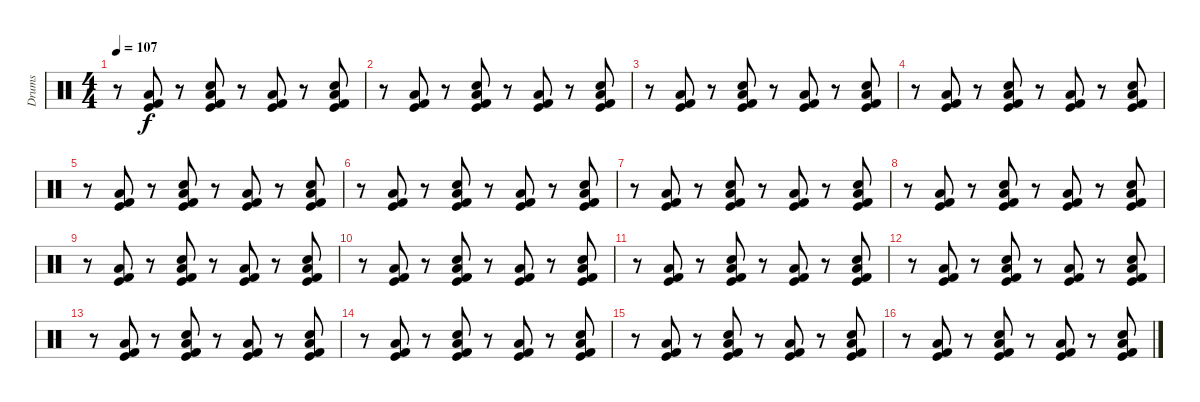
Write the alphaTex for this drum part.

\track ("Drums" "Drums") {instrument percussion}
\staff {score}
\articulation defaults
\ts (4 4)
\tempo 107
\clef neutral
\ks c
r.8{dy f} ("Kick (hit)" "Low Floor Tom (hit)" "Kick (hit) 2").8 r.8 ("Electric Snare (hit)" "Kick (hit)" "Low Floor Tom (hit)" "Kick (hit) 2").8 r.8 ("Kick (hit)" "Low Floor Tom (hit)" "Kick (hit) 2").8 r.8 ("Electric Snare (hit)" "Kick (hit)" "Low Floor Tom (hit)" "Kick (hit) 2").8 |
r.8 ("Kick (hit)" "Low Floor Tom (hit)" "Kick (hit) 2").8 r.8 ("Electric Snare (hit)" "Kick (hit)" "Low Floor Tom (hit)" "Kick (hit) 2").8 r.8 ("Kick (hit)" "Low Floor Tom (hit)" "Kick (hit) 2").8 r.8 ("Electric Snare (hit)" "Kick (hit)" "Low Floor Tom (hit)" "Kick (hit) 2").8 |
r.8 ("Kick (hit)" "Low Floor Tom (hit)" "Kick (hit) 2").8 r.8 ("Electric Snare (hit)" "Kick (hit)" "Low Floor Tom (hit)" "Kick (hit) 2").8 r.8 ("Kick (hit)" "Low Floor Tom (hit)" "Kick (hit) 2").8 r.8 ("Electric Snare (hit)" "Kick (hit)" "Low Floor Tom (hit)" "Kick (hit) 2").8 |
r.8 ("Kick (hit)" "Low Floor Tom (hit)" "Kick (hit) 2").8 r.8 ("Electric Snare (hit)" "Kick (hit)" "Low Floor Tom (hit)" "Kick (hit) 2").8 r.8 ("Kick (hit)" "Low Floor Tom (hit)" "Kick (hit) 2").8 r.8 ("Electric Snare (hit)" "Kick (hit)" "Low Floor Tom (hit)" "Kick (hit) 2").8 |
r.8 ("Kick (hit)" "Low Floor Tom (hit)" "Kick (hit) 2").8 r.8 ("Electric Snare (hit)" "Kick (hit)" "Low Floor Tom (hit)" "Kick (hit) 2").8 r.8 ("Kick (hit)" "Low Floor Tom (hit)" "Kick (hit) 2").8 r.8 ("Electric Snare (hit)" "Kick (hit)" "Low Floor Tom (hit)" "Kick (hit) 2").8 |
r.8 ("Kick (hit)" "Low Floor Tom (hit)" "Kick (hit) 2").8 r.8 ("Electric Snare (hit)" "Kick (hit)" "Low Floor Tom (hit)" "Kick (hit) 2").8 r.8 ("Kick (hit)" "Low Floor Tom (hit)" "Kick (hit) 2").8 r.8 ("Electric Snare (hit)" "Kick (hit)" "Low Floor Tom (hit)" "Kick (hit) 2").8 |
r.8 ("Kick (hit)" "Low Floor Tom (hit)" "Kick (hit) 2").8 r.8 ("Electric Snare (hit)" "Kick (hit)" "Low Floor Tom (hit)" "Kick (hit) 2").8 r.8 ("Kick (hit)" "Low Floor Tom (hit)" "Kick (hit) 2").8 r.8 ("Electric Snare (hit)" "Kick (hit)" "Low Floor Tom (hit)" "Kick (hit) 2").8 |
r.8 ("Kick (hit)" "Low Floor Tom (hit)" "Kick (hit) 2").8 r.8 ("Electric Snare (hit)" "Kick (hit)" "Low Floor Tom (hit)" "Kick (hit) 2").8 r.8 ("Kick (hit)" "Low Floor Tom (hit)" "Kick (hit) 2").8 r.8 ("Electric Snare (hit)" "Kick (hit)" "Low Floor Tom (hit)" "Kick (hit) 2").8 |
r.8 ("Kick (hit)" "Low Floor Tom (hit)" "Kick (hit) 2").8 r.8 ("Electric Snare (hit)" "Kick (hit)" "Low Floor Tom (hit)" "Kick (hit) 2").8 r.8 ("Kick (hit)" "Low Floor Tom (hit)" "Kick (hit) 2").8 r.8 ("Electric Snare (hit)" "Kick (hit)" "Low Floor Tom (hit)" "Kick (hit) 2").8 |
r.8 ("Kick (hit)" "Low Floor Tom (hit)" "Kick (hit) 2").8 r.8 ("Electric Snare (hit)" "Kick (hit)" "Low Floor Tom (hit)" "Kick (hit) 2").8 r.8 ("Kick (hit)" "Low Floor Tom (hit)" "Kick (hit) 2").8 r.8 ("Electric Snare (hit)" "Kick (hit)" "Low Floor Tom (hit)" "Kick (hit) 2").8 |
r.8 ("Kick (hit)" "Low Floor Tom (hit)" "Kick (hit) 2").8 r.8 ("Electric Snare (hit)" "Kick (hit)" "Low Floor Tom (hit)" "Kick (hit) 2").8 r.8 ("Kick (hit)" "Low Floor Tom (hit)" "Kick (hit) 2").8 r.8 ("Electric Snare (hit)" "Kick (hit)" "Low Floor Tom (hit)" "Kick (hit) 2").8 |
r.8 ("Kick (hit)" "Low Floor Tom (hit)" "Kick (hit) 2").8 r.8 ("Electric Snare (hit)" "Kick (hit)" "Low Floor Tom (hit)" "Kick (hit) 2").8 r.8 ("Kick (hit)" "Low Floor Tom (hit)" "Kick (hit) 2").8 r.8 ("Electric Snare (hit)" "Kick (hit)" "Low Floor Tom (hit)" "Kick (hit) 2").8 |
r.8 ("Kick (hit)" "Low Floor Tom (hit)" "Kick (hit) 2").8 r.8 ("Electric Snare (hit)" "Kick (hit)" "Low Floor Tom (hit)" "Kick (hit) 2").8 r.8 ("Kick (hit)" "Low Floor Tom (hit)" "Kick (hit) 2").8 r.8 ("Electric Snare (hit)" "Kick (hit)" "Low Floor Tom (hit)" "Kick (hit) 2").8 |
r.8 ("Kick (hit)" "Low Floor Tom (hit)" "Kick (hit) 2").8 r.8 ("Electric Snare (hit)" "Kick (hit)" "Low Floor Tom (hit)" "Kick (hit) 2").8 r.8 ("Kick (hit)" "Low Floor Tom (hit)" "Kick (hit) 2").8 r.8 ("Electric Snare (hit)" "Kick (hit)" "Low Floor Tom (hit)" "Kick (hit) 2").8 |
r.8 ("Kick (hit)" "Low Floor Tom (hit)" "Kick (hit) 2").8 r.8 ("Electric Snare (hit)" "Kick (hit)" "Low Floor Tom (hit)" "Kick (hit) 2").8 r.8 ("Kick (hit)" "Low Floor Tom (hit)" "Kick (hit) 2").8 r.8 ("Electric Snare (hit)" "Kick (hit)" "Low Floor Tom (hit)" "Kick (hit) 2").8 |
r.8 ("Kick (hit)" "Low Floor Tom (hit)" "Kick (hit) 2").8 r.8 ("Electric Snare (hit)" "Kick (hit)" "Low Floor Tom (hit)" "Kick (hit) 2").8 r.8 ("Kick (hit)" "Low Floor Tom (hit)" "Kick (hit) 2").8 r.8 ("Electric Snare (hit)" "Kick (hit)" "Low Floor Tom (hit)" "Kick (hit) 2").8
